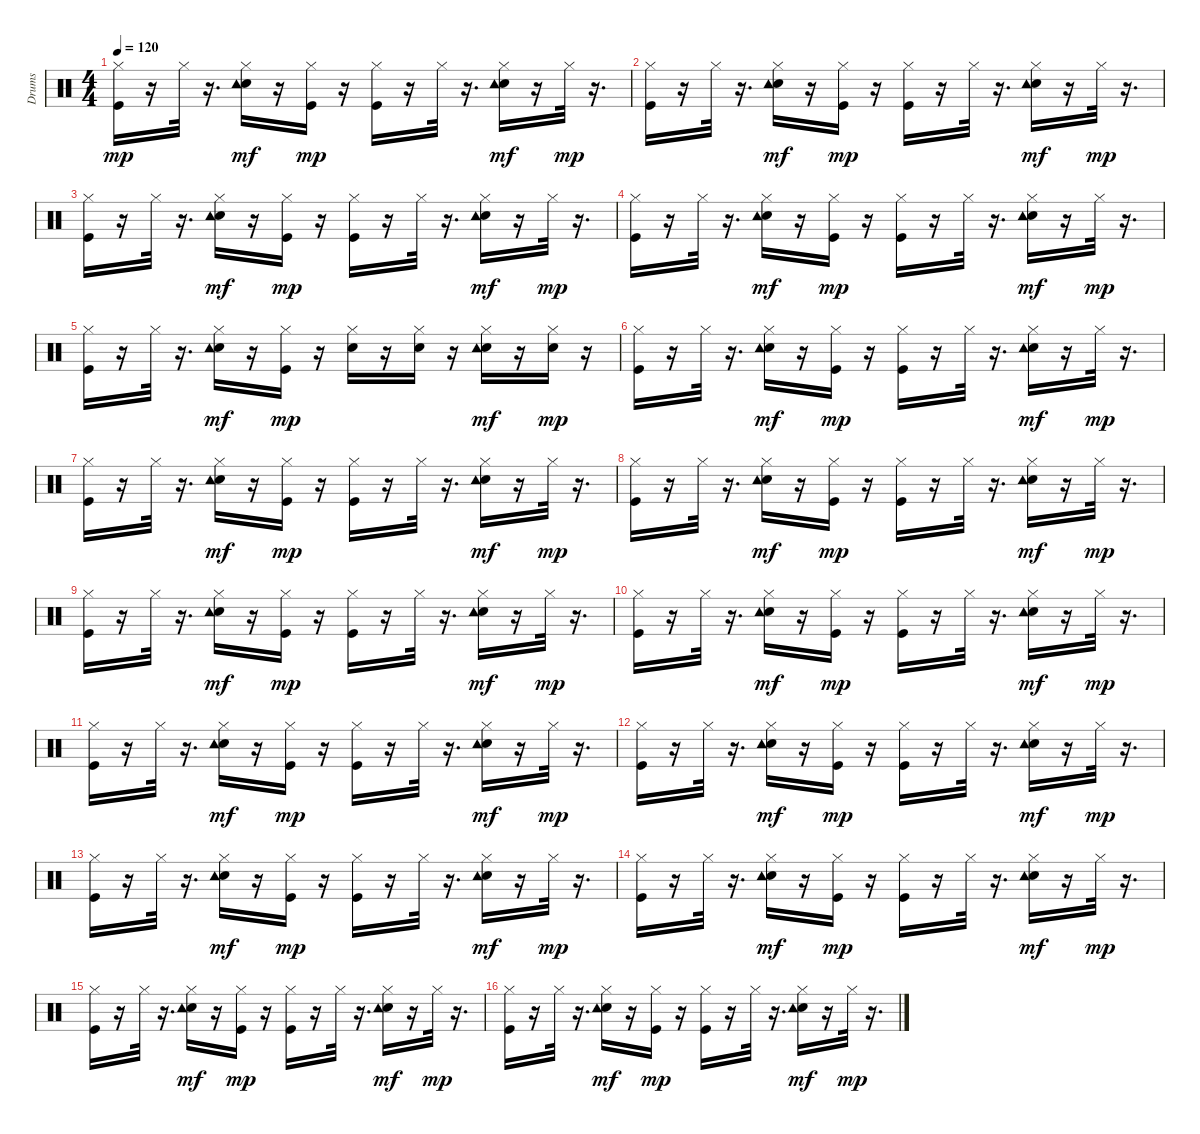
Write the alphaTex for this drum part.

\track ("Drums" "Drums") {instrument percussion}
\staff {score}
\articulation defaults
\ts (4 4)
\tempo 120
\clef neutral
\ks c
("Kick (hit)" "Hi-Hat (closed)").16{dy mp} r.16 "Hi-Hat (closed)".32 r.16{d} ("Electric Snare (hit)" "Hi-Hat (closed)" "Tambourine (hit)").16{dy mf} r.16 ("Kick (hit)" "Hi-Hat (closed)").16{dy mp} r.16 ("Kick (hit)" "Hi-Hat (closed)").16 r.16 "Hi-Hat (closed)".32 r.16{d} ("Electric Snare (hit)" "Hi-Hat (closed)" "Tambourine (hit)").16{dy mf} r.16 "Hi-Hat (closed)".32{dy mp} r.16{d} |
("Kick (hit)" "Hi-Hat (closed)").16 r.16 "Hi-Hat (closed)".32 r.16{d} ("Electric Snare (hit)" "Hi-Hat (closed)" "Tambourine (hit)").16{dy mf} r.16 ("Kick (hit)" "Hi-Hat (closed)").16{dy mp} r.16 ("Kick (hit)" "Hi-Hat (closed)").16 r.16 "Hi-Hat (closed)".32 r.16{d} ("Electric Snare (hit)" "Hi-Hat (closed)" "Tambourine (hit)").16{dy mf} r.16 "Hi-Hat (closed)".32{dy mp} r.16{d} |
("Kick (hit)" "Hi-Hat (closed)").16 r.16 "Hi-Hat (closed)".32 r.16{d} ("Electric Snare (hit)" "Hi-Hat (closed)" "Tambourine (hit)").16{dy mf} r.16 ("Kick (hit)" "Hi-Hat (closed)").16{dy mp} r.16 ("Kick (hit)" "Hi-Hat (closed)").16 r.16 "Hi-Hat (closed)".32 r.16{d} ("Electric Snare (hit)" "Hi-Hat (closed)" "Tambourine (hit)").16{dy mf} r.16 "Hi-Hat (closed)".32{dy mp} r.16{d} |
("Kick (hit)" "Hi-Hat (closed)").16 r.16 "Hi-Hat (closed)".32 r.16{d} ("Electric Snare (hit)" "Hi-Hat (closed)" "Tambourine (hit)").16{dy mf} r.16 ("Kick (hit)" "Hi-Hat (closed)").16{dy mp} r.16 ("Kick (hit)" "Hi-Hat (closed)").16 r.16 "Hi-Hat (closed)".32 r.16{d} ("Electric Snare (hit)" "Hi-Hat (closed)" "Tambourine (hit)").16{dy mf} r.16 "Hi-Hat (closed)".32{dy mp} r.16{d} |
("Kick (hit)" "Hi-Hat (closed)").16 r.16 "Hi-Hat (closed)".32 r.16{d} ("Electric Snare (hit)" "Hi-Hat (closed)" "Tambourine (hit)").16{dy mf} r.16 ("Kick (hit)" "Hi-Hat (closed)").16{dy mp} r.16 ("Electric Snare (hit)" "Hi-Hat (closed)").16 r.16 ("Electric Snare (hit)" "Hi-Hat (closed)").16 r.16 ("Electric Snare (hit)" "Hi-Hat (closed)" "Tambourine (hit)").16{dy mf} r.16 ("Electric Snare (hit)" "Hi-Hat (closed)").16{dy mp} r.16 |
("Kick (hit)" "Hi-Hat (closed)").16 r.16 "Hi-Hat (closed)".32 r.16{d} ("Electric Snare (hit)" "Hi-Hat (closed)" "Tambourine (hit)").16{dy mf} r.16 ("Kick (hit)" "Hi-Hat (closed)").16{dy mp} r.16 ("Kick (hit)" "Hi-Hat (closed)").16 r.16 "Hi-Hat (closed)".32 r.16{d} ("Electric Snare (hit)" "Hi-Hat (closed)" "Tambourine (hit)").16{dy mf} r.16 "Hi-Hat (closed)".32{dy mp} r.16{d} |
("Kick (hit)" "Hi-Hat (closed)").16 r.16 "Hi-Hat (closed)".32 r.16{d} ("Electric Snare (hit)" "Hi-Hat (closed)" "Tambourine (hit)").16{dy mf} r.16 ("Kick (hit)" "Hi-Hat (closed)").16{dy mp} r.16 ("Kick (hit)" "Hi-Hat (closed)").16 r.16 "Hi-Hat (closed)".32 r.16{d} ("Electric Snare (hit)" "Hi-Hat (closed)" "Tambourine (hit)").16{dy mf} r.16 "Hi-Hat (closed)".32{dy mp} r.16{d} |
("Kick (hit)" "Hi-Hat (closed)").16 r.16 "Hi-Hat (closed)".32 r.16{d} ("Electric Snare (hit)" "Hi-Hat (closed)" "Tambourine (hit)").16{dy mf} r.16 ("Kick (hit)" "Hi-Hat (closed)").16{dy mp} r.16 ("Kick (hit)" "Hi-Hat (closed)").16 r.16 "Hi-Hat (closed)".32 r.16{d} ("Electric Snare (hit)" "Hi-Hat (closed)" "Tambourine (hit)").16{dy mf} r.16 "Hi-Hat (closed)".32{dy mp} r.16{d} |
("Kick (hit)" "Hi-Hat (closed)").16 r.16 "Hi-Hat (closed)".32 r.16{d} ("Electric Snare (hit)" "Hi-Hat (closed)" "Tambourine (hit)").16{dy mf} r.16 ("Kick (hit)" "Hi-Hat (closed)").16{dy mp} r.16 ("Kick (hit)" "Hi-Hat (closed)").16 r.16 "Hi-Hat (closed)".32 r.16{d} ("Electric Snare (hit)" "Hi-Hat (closed)" "Tambourine (hit)").16{dy mf} r.16 "Hi-Hat (closed)".32{dy mp} r.16{d} |
("Kick (hit)" "Hi-Hat (closed)").16 r.16 "Hi-Hat (closed)".32 r.16{d} ("Electric Snare (hit)" "Hi-Hat (closed)" "Tambourine (hit)").16{dy mf} r.16 ("Kick (hit)" "Hi-Hat (closed)").16{dy mp} r.16 ("Kick (hit)" "Hi-Hat (closed)").16 r.16 "Hi-Hat (closed)".32 r.16{d} ("Electric Snare (hit)" "Hi-Hat (closed)" "Tambourine (hit)").16{dy mf} r.16 "Hi-Hat (closed)".32{dy mp} r.16{d} |
("Kick (hit)" "Hi-Hat (closed)").16 r.16 "Hi-Hat (closed)".32 r.16{d} ("Electric Snare (hit)" "Hi-Hat (closed)" "Tambourine (hit)").16{dy mf} r.16 ("Kick (hit)" "Hi-Hat (closed)").16{dy mp} r.16 ("Kick (hit)" "Hi-Hat (closed)").16 r.16 "Hi-Hat (closed)".32 r.16{d} ("Electric Snare (hit)" "Hi-Hat (closed)" "Tambourine (hit)").16{dy mf} r.16 "Hi-Hat (closed)".32{dy mp} r.16{d} |
("Kick (hit)" "Hi-Hat (closed)").16 r.16 "Hi-Hat (closed)".32 r.16{d} ("Electric Snare (hit)" "Hi-Hat (closed)" "Tambourine (hit)").16{dy mf} r.16 ("Kick (hit)" "Hi-Hat (closed)").16{dy mp} r.16 ("Kick (hit)" "Hi-Hat (closed)").16 r.16 "Hi-Hat (closed)".32 r.16{d} ("Electric Snare (hit)" "Hi-Hat (closed)" "Tambourine (hit)").16{dy mf} r.16 "Hi-Hat (closed)".32{dy mp} r.16{d} |
("Kick (hit)" "Hi-Hat (closed)").16 r.16 "Hi-Hat (closed)".32 r.16{d} ("Electric Snare (hit)" "Hi-Hat (closed)" "Tambourine (hit)").16{dy mf} r.16 ("Kick (hit)" "Hi-Hat (closed)").16{dy mp} r.16 ("Kick (hit)" "Hi-Hat (closed)").16 r.16 "Hi-Hat (closed)".32 r.16{d} ("Electric Snare (hit)" "Hi-Hat (closed)" "Tambourine (hit)").16{dy mf} r.16 "Hi-Hat (closed)".32{dy mp} r.16{d} |
("Kick (hit)" "Hi-Hat (closed)").16 r.16 "Hi-Hat (closed)".32 r.16{d} ("Electric Snare (hit)" "Hi-Hat (closed)" "Tambourine (hit)").16{dy mf} r.16 ("Kick (hit)" "Hi-Hat (closed)").16{dy mp} r.16 ("Kick (hit)" "Hi-Hat (closed)").16 r.16 "Hi-Hat (closed)".32 r.16{d} ("Electric Snare (hit)" "Hi-Hat (closed)" "Tambourine (hit)").16{dy mf} r.16 "Hi-Hat (closed)".32{dy mp} r.16{d} |
("Kick (hit)" "Hi-Hat (closed)").16 r.16 "Hi-Hat (closed)".32 r.16{d} ("Electric Snare (hit)" "Hi-Hat (closed)" "Tambourine (hit)").16{dy mf} r.16 ("Kick (hit)" "Hi-Hat (closed)").16{dy mp} r.16 ("Kick (hit)" "Hi-Hat (closed)").16 r.16 "Hi-Hat (closed)".32 r.16{d} ("Electric Snare (hit)" "Hi-Hat (closed)" "Tambourine (hit)").16{dy mf} r.16 "Hi-Hat (closed)".32{dy mp} r.16{d} |
("Kick (hit)" "Hi-Hat (closed)").16 r.16 "Hi-Hat (closed)".32 r.16{d} ("Electric Snare (hit)" "Hi-Hat (closed)" "Tambourine (hit)").16{dy mf} r.16 ("Kick (hit)" "Hi-Hat (closed)").16{dy mp} r.16 ("Kick (hit)" "Hi-Hat (closed)").16 r.16 "Hi-Hat (closed)".32 r.16{d} ("Electric Snare (hit)" "Hi-Hat (closed)" "Tambourine (hit)").16{dy mf} r.16 "Hi-Hat (closed)".32{dy mp} r.16{d}
